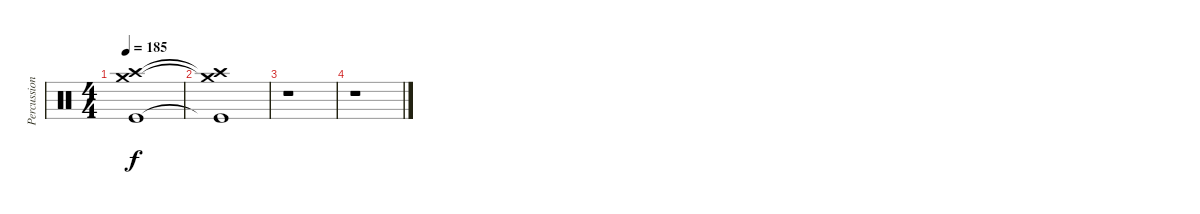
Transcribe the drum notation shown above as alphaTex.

\track ("Percussions" "Percussion") {instrument percussion}
\staff {score}
\articulation defaults
\ts (4 4)
\tempo 185
\clef neutral
\ks c
("Crash high (hit)"{t} "Crash medium (hit)"{t} "Kick (hit)"{t}).1{dy f} |
("Crash high (hit)"{t} "Crash medium (hit)"{t} "Kick (hit)"{t}).1 |
r.1 |
r.1
